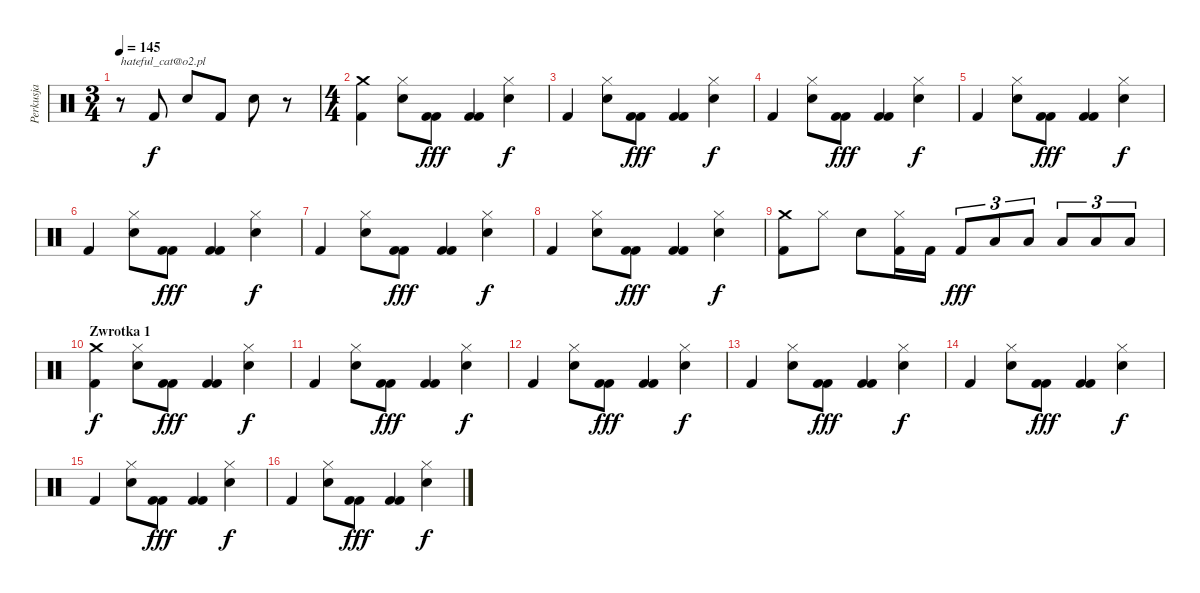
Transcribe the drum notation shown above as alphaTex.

\track ("Perkusja" "Perkusja") {instrument percussion}
\staff {score}
\articulation defaults
\ts (3 4)
\tempo 145
\clef neutral
\ks c
r.8{txt "hateful_cat@o2.pl" dy f} "Kick (hit) 2".8 "Snare (hit) 2".8 "Kick (hit) 2".8 "Snare (hit) 2".8 r.8 |
\ts (4 4)
("Kick (hit) 2" "Crash medium (hit)").4 ("Hi-Hat (closed)" "Snare (hit) 2").8 ("Kick (hit) 2" "Kick (hit) 2").8{dy fff} ("Kick (hit) 2" "Kick (hit) 2").4 ("Hi-Hat (closed)" "Snare (hit) 2").4{dy f} |
"Kick (hit) 2".4 ("Hi-Hat (closed)" "Snare (hit) 2").8 ("Kick (hit) 2" "Kick (hit) 2").8{dy fff} ("Kick (hit) 2" "Kick (hit) 2").4 ("Hi-Hat (closed)" "Snare (hit) 2").4{dy f} |
"Kick (hit) 2".4 ("Hi-Hat (closed)" "Snare (hit) 2").8 ("Kick (hit) 2" "Kick (hit) 2").8{dy fff} ("Kick (hit) 2" "Kick (hit) 2").4 ("Hi-Hat (closed)" "Snare (hit) 2").4{dy f} |
"Kick (hit) 2".4 ("Hi-Hat (closed)" "Snare (hit) 2").8 ("Kick (hit) 2" "Kick (hit) 2").8{dy fff} ("Kick (hit) 2" "Kick (hit) 2").4 ("Hi-Hat (closed)" "Snare (hit) 2").4{dy f} |
"Kick (hit) 2".4 ("Hi-Hat (closed)" "Snare (hit) 2").8 ("Kick (hit) 2" "Kick (hit) 2").8{dy fff} ("Kick (hit) 2" "Kick (hit) 2").4 ("Hi-Hat (closed)" "Snare (hit) 2").4{dy f} |
"Kick (hit) 2".4 ("Hi-Hat (closed)" "Snare (hit) 2").8 ("Kick (hit) 2" "Kick (hit) 2").8{dy fff} ("Kick (hit) 2" "Kick (hit) 2").4 ("Hi-Hat (closed)" "Snare (hit) 2").4{dy f} |
"Kick (hit) 2".4 ("Hi-Hat (closed)" "Snare (hit) 2").8 ("Kick (hit) 2" "Kick (hit) 2").8{dy fff} ("Kick (hit) 2" "Kick (hit) 2").4 ("Hi-Hat (closed)" "Snare (hit) 2").4{dy f} |
("Kick (hit) 2" "Crash medium (hit)").8 "Hi-Hat (closed)".8 "Snare (hit) 2".8 ("Hi-Hat (closed)" "Kick (hit) 2").16 "Kick (hit) 2".16 "Kick (hit) 2".8{tu (3 2) dy fff} "Low Tom (hit)".8{tu (3 2)} "Low Tom (hit)".8{tu (3 2)} "Low Tom (hit)".8{tu (3 2)} "Low Tom (hit)".8{tu (3 2)} "Low Tom (hit)".8{tu (3 2)} |
\section ("" "Zwrotka 1")
("Kick (hit) 2" "Crash medium (hit)").4{dy f} ("Hi-Hat (closed)" "Snare (hit) 2").8 ("Kick (hit) 2" "Kick (hit) 2").8{dy fff} ("Kick (hit) 2" "Kick (hit) 2").4 ("Hi-Hat (closed)" "Snare (hit) 2").4{dy f} |
"Kick (hit) 2".4 ("Hi-Hat (closed)" "Snare (hit) 2").8 ("Kick (hit) 2" "Kick (hit) 2").8{dy fff} ("Kick (hit) 2" "Kick (hit) 2").4 ("Hi-Hat (closed)" "Snare (hit) 2").4{dy f} |
"Kick (hit) 2".4 ("Hi-Hat (closed)" "Snare (hit) 2").8 ("Kick (hit) 2" "Kick (hit) 2").8{dy fff} ("Kick (hit) 2" "Kick (hit) 2").4 ("Hi-Hat (closed)" "Snare (hit) 2").4{dy f} |
"Kick (hit) 2".4 ("Hi-Hat (closed)" "Snare (hit) 2").8 ("Kick (hit) 2" "Kick (hit) 2").8{dy fff} ("Kick (hit) 2" "Kick (hit) 2").4 ("Hi-Hat (closed)" "Snare (hit) 2").4{dy f} |
"Kick (hit) 2".4 ("Hi-Hat (closed)" "Snare (hit) 2").8 ("Kick (hit) 2" "Kick (hit) 2").8{dy fff} ("Kick (hit) 2" "Kick (hit) 2").4 ("Hi-Hat (closed)" "Snare (hit) 2").4{dy f} |
"Kick (hit) 2".4 ("Hi-Hat (closed)" "Snare (hit) 2").8 ("Kick (hit) 2" "Kick (hit) 2").8{dy fff} ("Kick (hit) 2" "Kick (hit) 2").4 ("Hi-Hat (closed)" "Snare (hit) 2").4{dy f} |
"Kick (hit) 2".4 ("Hi-Hat (closed)" "Snare (hit) 2").8 ("Kick (hit) 2" "Kick (hit) 2").8{dy fff} ("Kick (hit) 2" "Kick (hit) 2").4 ("Hi-Hat (closed)" "Snare (hit) 2").4{dy f}
